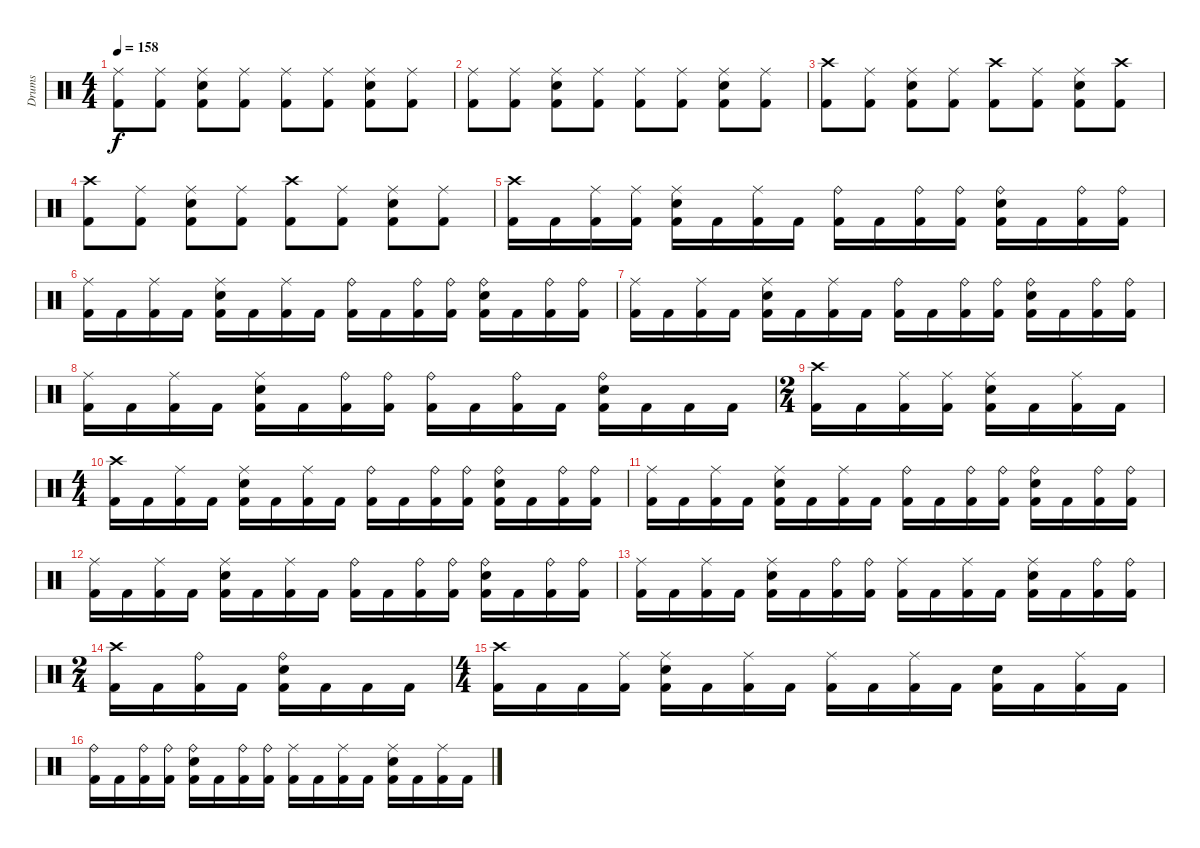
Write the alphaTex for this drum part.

\track ("Drums" "Drums") {instrument percussion}
\staff {score}
\articulation defaults
\ts (4 4)
\tempo 158
\clef neutral
\ks c
("Ride (middle)" "Kick (hit) 2").8{dy f} ("Ride (middle)" "Kick (hit) 2").8 ("Ride (middle)" "Snare (hit) 2" "Kick (hit) 2").8 ("Ride (middle)" "Kick (hit) 2").8 ("Ride (middle)" "Kick (hit) 2").8 ("Ride (middle)" "Kick (hit) 2").8 ("Ride (middle)" "Snare (hit) 2" "Kick (hit) 2").8 ("Ride (middle)" "Kick (hit) 2").8 |
("Ride (middle)" "Kick (hit) 2").8 ("Ride (middle)" "Kick (hit) 2").8 ("Ride (middle)" "Snare (hit) 2" "Kick (hit) 2").8 ("Ride (middle)" "Kick (hit) 2").8 ("Ride (middle)" "Kick (hit) 2").8 ("Ride (middle)" "Kick (hit) 2").8 ("Ride (middle)" "Snare (hit) 2" "Kick (hit) 2").8 ("Ride (middle)" "Kick (hit) 2").8 |
("Crash high (hit)" "Kick (hit) 2").8 ("Ride (middle)" "Kick (hit) 2").8 ("Ride (middle)" "Snare (hit) 2" "Kick (hit) 2").8 ("Ride (middle)" "Kick (hit) 2").8 ("Crash high (hit)" "Kick (hit) 2").8 ("Ride (middle)" "Kick (hit) 2").8 ("Ride (middle)" "Snare (hit) 2" "Kick (hit) 2").8 ("Crash high (hit)" "Kick (hit) 2").8 |
("Crash high (hit)" "Kick (hit) 2").8 ("Ride (middle)" "Kick (hit) 2").8 ("Ride (middle)" "Snare (hit) 2" "Kick (hit) 2").8 ("Ride (middle)" "Kick (hit) 2").8 ("Crash high (hit)" "Kick (hit) 2").8 ("Ride (middle)" "Kick (hit) 2").8 ("Ride (middle)" "Snare (hit) 2" "Kick (hit) 2").8 ("Ride (middle)" "Kick (hit) 2").8 |
("Crash high (hit)" "Kick (hit) 2").16 "Kick (hit) 2".16 ("Ride (middle)" "Kick (hit) 2").16 ("Ride (middle)" "Kick (hit) 2").16 ("Ride (middle)" "Snare (hit) 2" "Kick (hit) 2").16 "Kick (hit) 2".16 ("Ride (middle)" "Kick (hit) 2").16 "Kick (hit) 2".16 ("Ride (bell)" "Kick (hit) 2").16 "Kick (hit) 2".16 ("Ride (bell)" "Kick (hit) 2").16 ("Ride (bell)" "Kick (hit) 2").16 ("Ride (bell)" "Snare (hit) 2" "Kick (hit) 2").16 "Kick (hit) 2".16 ("Ride (bell)" "Kick (hit) 2").16 ("Ride (bell)" "Kick (hit) 2").16 |
("Ride (middle)" "Kick (hit) 2").16 "Kick (hit) 2".16 ("Ride (middle)" "Kick (hit) 2").16 "Kick (hit) 2".16 ("Ride (middle)" "Snare (hit) 2" "Kick (hit) 2").16 "Kick (hit) 2".16 ("Ride (middle)" "Kick (hit) 2").16 "Kick (hit) 2".16 ("Ride (bell)" "Kick (hit) 2").16 "Kick (hit) 2".16 ("Ride (bell)" "Kick (hit) 2").16 ("Ride (bell)" "Kick (hit) 2").16 ("Ride (bell)" "Snare (hit) 2" "Kick (hit) 2").16 "Kick (hit) 2".16 ("Ride (bell)" "Kick (hit) 2").16 ("Ride (bell)" "Kick (hit) 2").16 |
("Ride (middle)" "Kick (hit) 2").16 "Kick (hit) 2".16 ("Ride (middle)" "Kick (hit) 2").16 "Kick (hit) 2".16 ("Ride (middle)" "Snare (hit) 2" "Kick (hit) 2").16 "Kick (hit) 2".16 ("Ride (middle)" "Kick (hit) 2").16 "Kick (hit) 2".16 ("Ride (bell)" "Kick (hit) 2").16 "Kick (hit) 2".16 ("Ride (bell)" "Kick (hit) 2").16 ("Ride (bell)" "Kick (hit) 2").16 ("Ride (bell)" "Snare (hit) 2" "Kick (hit) 2").16 "Kick (hit) 2".16 ("Ride (bell)" "Kick (hit) 2").16 ("Ride (bell)" "Kick (hit) 2").16 |
("Ride (middle)" "Kick (hit) 2").16 "Kick (hit) 2".16 ("Ride (middle)" "Kick (hit) 2").16 "Kick (hit) 2".16 ("Ride (middle)" "Snare (hit) 2" "Kick (hit) 2").16 "Kick (hit) 2".16 ("Ride (bell)" "Kick (hit) 2").16 ("Ride (bell)" "Kick (hit) 2").16 ("Ride (bell)" "Kick (hit) 2").16 "Kick (hit) 2".16 ("Ride (bell)" "Kick (hit) 2").16 "Kick (hit) 2".16 ("Ride (bell)" "Snare (hit) 2" "Kick (hit) 2").16 "Kick (hit) 2".16 "Kick (hit) 2".16 "Kick (hit) 2".16 |
\ts (2 4)
("Crash high (hit)" "Kick (hit) 2").16 "Kick (hit) 2".16 ("Ride (middle)" "Kick (hit) 2").16 ("Ride (middle)" "Kick (hit) 2").16 ("Ride (middle)" "Snare (hit) 2" "Kick (hit) 2").16 "Kick (hit) 2".16 ("Ride (middle)" "Kick (hit) 2").16 "Kick (hit) 2".16 |
\ts (4 4)
("Crash high (hit)" "Kick (hit) 2").16 "Kick (hit) 2".16 ("Ride (middle)" "Kick (hit) 2").16 "Kick (hit) 2".16 ("Ride (middle)" "Snare (hit) 2" "Kick (hit) 2").16 "Kick (hit) 2".16 ("Ride (middle)" "Kick (hit) 2").16 "Kick (hit) 2".16 ("Ride (bell)" "Kick (hit) 2").16 "Kick (hit) 2".16 ("Ride (bell)" "Kick (hit) 2").16 ("Ride (bell)" "Kick (hit) 2").16 ("Ride (bell)" "Snare (hit) 2" "Kick (hit) 2").16 "Kick (hit) 2".16 ("Ride (bell)" "Kick (hit) 2").16 ("Ride (bell)" "Kick (hit) 2").16 |
("Ride (middle)" "Kick (hit) 2").16 "Kick (hit) 2".16 ("Ride (middle)" "Kick (hit) 2").16 "Kick (hit) 2".16 ("Ride (middle)" "Snare (hit) 2" "Kick (hit) 2").16 "Kick (hit) 2".16 ("Ride (middle)" "Kick (hit) 2").16 "Kick (hit) 2".16 ("Ride (bell)" "Kick (hit) 2").16 "Kick (hit) 2".16 ("Ride (bell)" "Kick (hit) 2").16 ("Ride (bell)" "Kick (hit) 2").16 ("Ride (bell)" "Snare (hit) 2" "Kick (hit) 2").16 "Kick (hit) 2".16 ("Ride (bell)" "Kick (hit) 2").16 ("Ride (bell)" "Kick (hit) 2").16 |
("Ride (middle)" "Kick (hit) 2").16 "Kick (hit) 2".16 ("Ride (middle)" "Kick (hit) 2").16 "Kick (hit) 2".16 ("Ride (middle)" "Snare (hit) 2" "Kick (hit) 2").16 "Kick (hit) 2".16 ("Ride (middle)" "Kick (hit) 2").16 "Kick (hit) 2".16 ("Ride (bell)" "Kick (hit) 2").16 "Kick (hit) 2".16 ("Ride (bell)" "Kick (hit) 2").16 ("Ride (bell)" "Kick (hit) 2").16 ("Ride (bell)" "Snare (hit) 2" "Kick (hit) 2").16 "Kick (hit) 2".16 ("Ride (bell)" "Kick (hit) 2").16 ("Ride (bell)" "Kick (hit) 2").16 |
("Ride (middle)" "Kick (hit) 2").16 "Kick (hit) 2".16 ("Ride (middle)" "Kick (hit) 2").16 "Kick (hit) 2".16 ("Ride (middle)" "Snare (hit) 2" "Kick (hit) 2").16 "Kick (hit) 2".16 ("Ride (bell)" "Kick (hit) 2").16 ("Ride (bell)" "Kick (hit) 2").16 ("Ride (middle)" "Kick (hit) 2").16 "Kick (hit) 2".16 ("Ride (middle)" "Kick (hit) 2").16 "Kick (hit) 2".16 ("Ride (middle)" "Snare (hit) 2" "Kick (hit) 2").16 "Kick (hit) 2".16 ("Ride (bell)" "Kick (hit) 2").16 ("Ride (bell)" "Kick (hit) 2").16 |
\ts (2 4)
("Crash high (hit)" "Kick (hit) 2").16 "Kick (hit) 2".16 ("Ride (bell)" "Kick (hit) 2").16 "Kick (hit) 2".16 ("Ride (bell)" "Snare (hit) 2" "Kick (hit) 2").16 "Kick (hit) 2".16 "Kick (hit) 2".16 "Kick (hit) 2".16 |
\ts (4 4)
("Crash high (hit)" "Kick (hit) 2").16 "Kick (hit) 2".16 "Kick (hit) 2".16 ("Ride (middle)" "Kick (hit) 2").16 ("Ride (middle)" "Snare (hit) 2" "Kick (hit) 2").16 "Kick (hit) 2".16 ("Ride (middle)" "Kick (hit) 2").16 "Kick (hit) 2".16 ("Ride (middle)" "Kick (hit) 2").16 "Kick (hit) 2".16 ("Ride (middle)" "Kick (hit) 2").16 "Kick (hit) 2".16 ("Snare (hit) 2" "Kick (hit) 2").16 "Kick (hit) 2".16 ("Ride (middle)" "Kick (hit) 2").16 "Kick (hit) 2".16 |
("Ride (bell)" "Kick (hit) 2").16 "Kick (hit) 2".16 ("Ride (bell)" "Kick (hit) 2").16 ("Ride (bell)" "Kick (hit) 2").16 ("Ride (bell)" "Snare (hit) 2" "Kick (hit) 2").16 "Kick (hit) 2".16 ("Ride (bell)" "Kick (hit) 2").16 ("Ride (bell)" "Kick (hit) 2").16 ("Ride (middle)" "Kick (hit) 2").16 "Kick (hit) 2".16 ("Ride (middle)" "Kick (hit) 2").16 "Kick (hit) 2".16 ("Ride (middle)" "Snare (hit) 2" "Kick (hit) 2").16 "Kick (hit) 2".16 ("Ride (middle)" "Kick (hit) 2").16 "Kick (hit) 2".16
